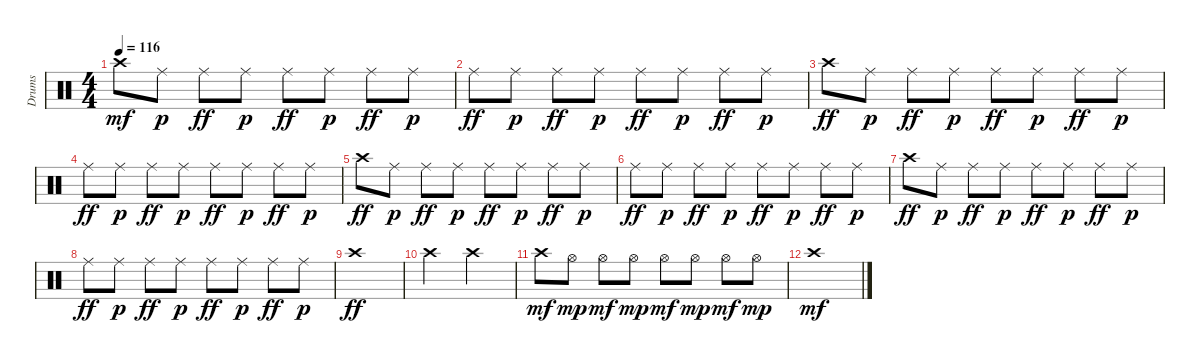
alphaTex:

\track ("Drums" "Drums") {instrument percussion}
\staff {score}
\articulation defaults
\ts (4 4)
\tempo 116
\clef neutral
\ks c "Crash high (hit)".8{dy mf} "Ride (middle)".8{dy p} "Ride (middle)".8{dy ff} "Ride (middle)".8{dy p} "Ride (middle)".8{dy ff} "Ride (middle)".8{dy p} "Ride (middle)".8{dy ff} "Ride (middle)".8{dy p}
|
"Ride (middle)".8{dy ff} "Ride (middle)".8{dy p} "Ride (middle)".8{dy ff} "Ride (middle)".8{dy p} "Ride (middle)".8{dy ff} "Ride (middle)".8{dy p} "Ride (middle)".8{dy ff} "Ride (middle)".8{dy p} |
"Crash high (hit)".8{dy ff} "Ride (middle)".8{dy p} "Ride (middle)".8{dy ff} "Ride (middle)".8{dy p} "Ride (middle)".8{dy ff} "Ride (middle)".8{dy p} "Ride (middle)".8{dy ff} "Ride (middle)".8{dy p} |
"Ride (middle)".8{dy ff} "Ride (middle)".8{dy p} "Ride (middle)".8{dy ff} "Ride (middle)".8{dy p} "Ride (middle)".8{dy ff} "Ride (middle)".8{dy p} "Ride (middle)".8{dy ff} "Ride (middle)".8{dy p} |
"Crash high (hit)".8{dy ff} "Ride (middle)".8{dy p} "Ride (middle)".8{dy ff} "Ride (middle)".8{dy p} "Ride (middle)".8{dy ff} "Ride (middle)".8{dy p} "Ride (middle)".8{dy ff} "Ride (middle)".8{dy p} |
"Ride (middle)".8{dy ff} "Ride (middle)".8{dy p} "Ride (middle)".8{dy ff} "Ride (middle)".8{dy p} "Ride (middle)".8{dy ff} "Ride (middle)".8{dy p} "Ride (middle)".8{dy ff} "Ride (middle)".8{dy p} |
"Crash high (hit)".8{dy ff} "Ride (middle)".8{dy p} "Ride (middle)".8{dy ff} "Ride (middle)".8{dy p} "Ride (middle)".8{dy ff} "Ride (middle)".8{dy p} "Ride (middle)".8{dy ff} "Ride (middle)".8{dy p} |
"Ride (middle)".8{dy ff} "Ride (middle)".8{dy p} "Ride (middle)".8{dy ff} "Ride (middle)".8{dy p} "Ride (middle)".8{dy ff} "Ride (middle)".8{dy p} "Ride (middle)".8{dy ff} "Ride (middle)".8{dy p} |
"Crash high (hit)".1{dy ff} |
"Crash high (hit)".2 "Crash high (hit)".2 |
"Crash high (hit)".8{dy mf} "Hi-Hat (open)".8{dy mp} "Hi-Hat (open)".8{dy mf} "Hi-Hat (open)".8{dy mp} "Hi-Hat (open)".8{dy mf} "Hi-Hat (open)".8{dy mp} "Hi-Hat (open)".8{dy mf} "Hi-Hat (open)".8{dy mp} |
"Crash high (hit)".1{dy mf}
